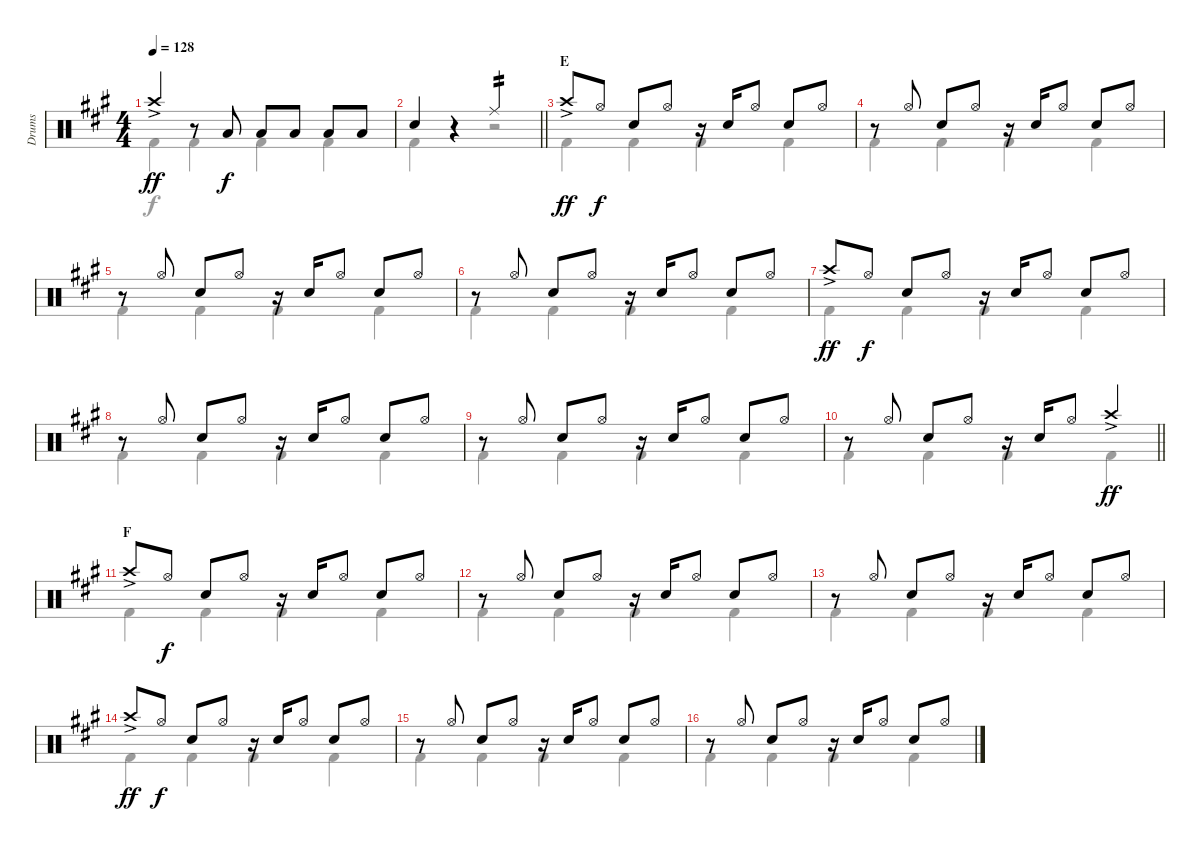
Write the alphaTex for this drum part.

\track ("Drums" "Drums") {instrument percussion}
\staff {score}
\articulation defaults
\voice
\ts (4 4)
\tempo 128
\clef neutral
\ks a "Crash high (hit)"{ac}.4{dy ff}
r.8 "Low Tom (hit)".8{dy f} "Low Tom (hit)".8 "Low Tom (hit)".8 "Low Tom (hit)".8 "Low Tom (hit)".8 |
\barLineRight lightlight "Snare (hit) 2".4
r.4{volume 0} "Ride (middle)".2{tp 2 volume 13} |
\section ("" "E")
"Crash high (hit)"{ac}.8{dy ff} "Hi-Hat (open)".8{dy f} "Snare (hit) 2".8 "Hi-Hat (open)".8 r.16 "Snare (hit) 2".16 "Hi-Hat (open)".8 "Snare (hit) 2".8 "Hi-Hat (open)".8 |
r.8 "Hi-Hat (open)".8 "Snare (hit) 2".8 "Hi-Hat (open)".8 r.16 "Snare (hit) 2".16 "Hi-Hat (open)".8 "Snare (hit) 2".8 "Hi-Hat (open)".8 |
r.8 "Hi-Hat (open)".8 "Snare (hit) 2".8 "Hi-Hat (open)".8 r.16 "Snare (hit) 2".16 "Hi-Hat (open)".8 "Snare (hit) 2".8 "Hi-Hat (open)".8 |
r.8 "Hi-Hat (open)".8 "Snare (hit) 2".8 "Hi-Hat (open)".8 r.16 "Snare (hit) 2".16 "Hi-Hat (open)".8 "Snare (hit) 2".8 "Hi-Hat (open)".8 |
"Crash high (hit)"{ac}.8{dy ff} "Hi-Hat (open)".8{dy f} "Snare (hit) 2".8 "Hi-Hat (open)".8 r.16 "Snare (hit) 2".16 "Hi-Hat (open)".8 "Snare (hit) 2".8 "Hi-Hat (open)".8 |
r.8 "Hi-Hat (open)".8 "Snare (hit) 2".8 "Hi-Hat (open)".8 r.16 "Snare (hit) 2".16 "Hi-Hat (open)".8 "Snare (hit) 2".8 "Hi-Hat (open)".8 |
r.8 "Hi-Hat (open)".8 "Snare (hit) 2".8 "Hi-Hat (open)".8 r.16 "Snare (hit) 2".16 "Hi-Hat (open)".8 "Snare (hit) 2".8 "Hi-Hat (open)".8 |
\barLineRight lightlight
r.8 "Hi-Hat (open)".8 "Snare (hit) 2".8 "Hi-Hat (open)".8 r.16 "Snare (hit) 2".16 "Hi-Hat (open)".8 "Crash high (hit)"{ac}.4{dy ff} |
\section ("" "F")
"Crash high (hit)"{ac}.8 "Hi-Hat (open)".8{dy f} "Snare (hit) 2".8 "Hi-Hat (open)".8 r.16 "Snare (hit) 2".16 "Hi-Hat (open)".8 "Snare (hit) 2".8 "Hi-Hat (open)".8 |
r.8 "Hi-Hat (open)".8 "Snare (hit) 2".8 "Hi-Hat (open)".8 r.16 "Snare (hit) 2".16 "Hi-Hat (open)".8 "Snare (hit) 2".8 "Hi-Hat (open)".8 |
r.8 "Hi-Hat (open)".8 "Snare (hit) 2".8 "Hi-Hat (open)".8 r.16 "Snare (hit) 2".16 "Hi-Hat (open)".8 "Snare (hit) 2".8 "Hi-Hat (open)".8 |
"Crash high (hit)"{ac}.8{dy ff} "Hi-Hat (open)".8{dy f} "Snare (hit) 2".8 "Hi-Hat (open)".8 r.16 "Snare (hit) 2".16 "Hi-Hat (open)".8 "Snare (hit) 2".8 "Hi-Hat (open)".8 |
r.8 "Hi-Hat (open)".8 "Snare (hit) 2".8 "Hi-Hat (open)".8 r.16 "Snare (hit) 2".16 "Hi-Hat (open)".8 "Snare (hit) 2".8 "Hi-Hat (open)".8 |
r.8 "Hi-Hat (open)".8 "Snare (hit) 2".8 "Hi-Hat (open)".8 r.16 "Snare (hit) 2".16 "Hi-Hat (open)".8 "Snare (hit) 2".8 "Hi-Hat (open)".8
\voice
\clef neutral
\ottava regular
\simile none
\ks a "Kick (hit) 2".4{dy f} "Kick (hit) 2".4 "Kick (hit) 2".4 "Kick (hit) 2".4
|
\barLineRight lightlight "Kick (hit) 2".4
r.4 r.2 |
"Kick (hit) 2".4 "Kick (hit) 2".4 "Kick (hit) 2".4 "Kick (hit) 2".4 |
"Kick (hit) 2".4 "Kick (hit) 2".4 "Kick (hit) 2".4 "Kick (hit) 2".4 |
"Kick (hit) 2".4 "Kick (hit) 2".4 "Kick (hit) 2".4 "Kick (hit) 2".4 |
"Kick (hit) 2".4 "Kick (hit) 2".4 "Kick (hit) 2".4 "Kick (hit) 2".4 |
"Kick (hit) 2".4 "Kick (hit) 2".4 "Kick (hit) 2".4 "Kick (hit) 2".4 |
"Kick (hit) 2".4 "Kick (hit) 2".4 "Kick (hit) 2".4 "Kick (hit) 2".4 |
"Kick (hit) 2".4 "Kick (hit) 2".4 "Kick (hit) 2".4 "Kick (hit) 2".4 |
\barLineRight lightlight "Kick (hit) 2".4 "Kick (hit) 2".4 "Kick (hit) 2".4 "Kick (hit) 2".4
|
"Kick (hit) 2".4 "Kick (hit) 2".4 "Kick (hit) 2".4 "Kick (hit) 2".4 |
"Kick (hit) 2".4 "Kick (hit) 2".4 "Kick (hit) 2".4 "Kick (hit) 2".4 |
"Kick (hit) 2".4 "Kick (hit) 2".4 "Kick (hit) 2".4 "Kick (hit) 2".4 |
"Kick (hit) 2".4 "Kick (hit) 2".4 "Kick (hit) 2".4 "Kick (hit) 2".4 |
"Kick (hit) 2".4 "Kick (hit) 2".4 "Kick (hit) 2".4 "Kick (hit) 2".4 |
"Kick (hit) 2".4 "Kick (hit) 2".4 "Kick (hit) 2".4 "Kick (hit) 2".4
